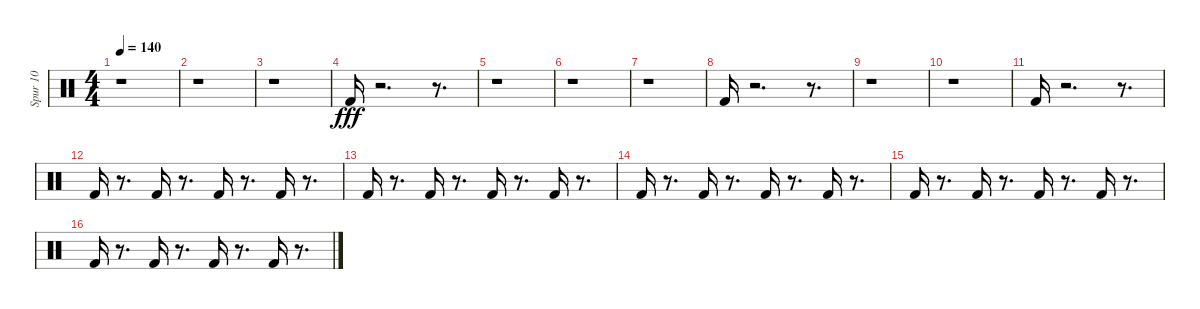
\track ("Spur 10" "Spur 10") {instrument percussion}
\staff {score}
\articulation defaults
\ts (4 4)
\tempo 140
\clef neutral
\ks c
r.1{dy fff} |
r.1 |
r.1 |
"Kick (hit) 2".16 r.2{d} r.8{d} |
r.1 |
r.1 |
r.1 |
"Kick (hit) 2".16 r.2{d} r.8{d} |
r.1 |
r.1 |
"Kick (hit) 2".16 r.2{d} r.8{d} |
"Kick (hit) 2".16 r.8{d} "Kick (hit) 2".16 r.8{d} "Kick (hit) 2".16 r.8{d} "Kick (hit) 2".16 r.8{d} |
"Kick (hit) 2".16 r.8{d} "Kick (hit) 2".16 r.8{d} "Kick (hit) 2".16 r.8{d} "Kick (hit) 2".16 r.8{d} |
"Kick (hit) 2".16 r.8{d} "Kick (hit) 2".16 r.8{d} "Kick (hit) 2".16 r.8{d} "Kick (hit) 2".16 r.8{d} |
"Kick (hit) 2".16 r.8{d} "Kick (hit) 2".16 r.8{d} "Kick (hit) 2".16 r.8{d} "Kick (hit) 2".16 r.8{d} |
"Kick (hit) 2".16 r.8{d} "Kick (hit) 2".16 r.8{d} "Kick (hit) 2".16 r.8{d} "Kick (hit) 2".16 r.8{d}
